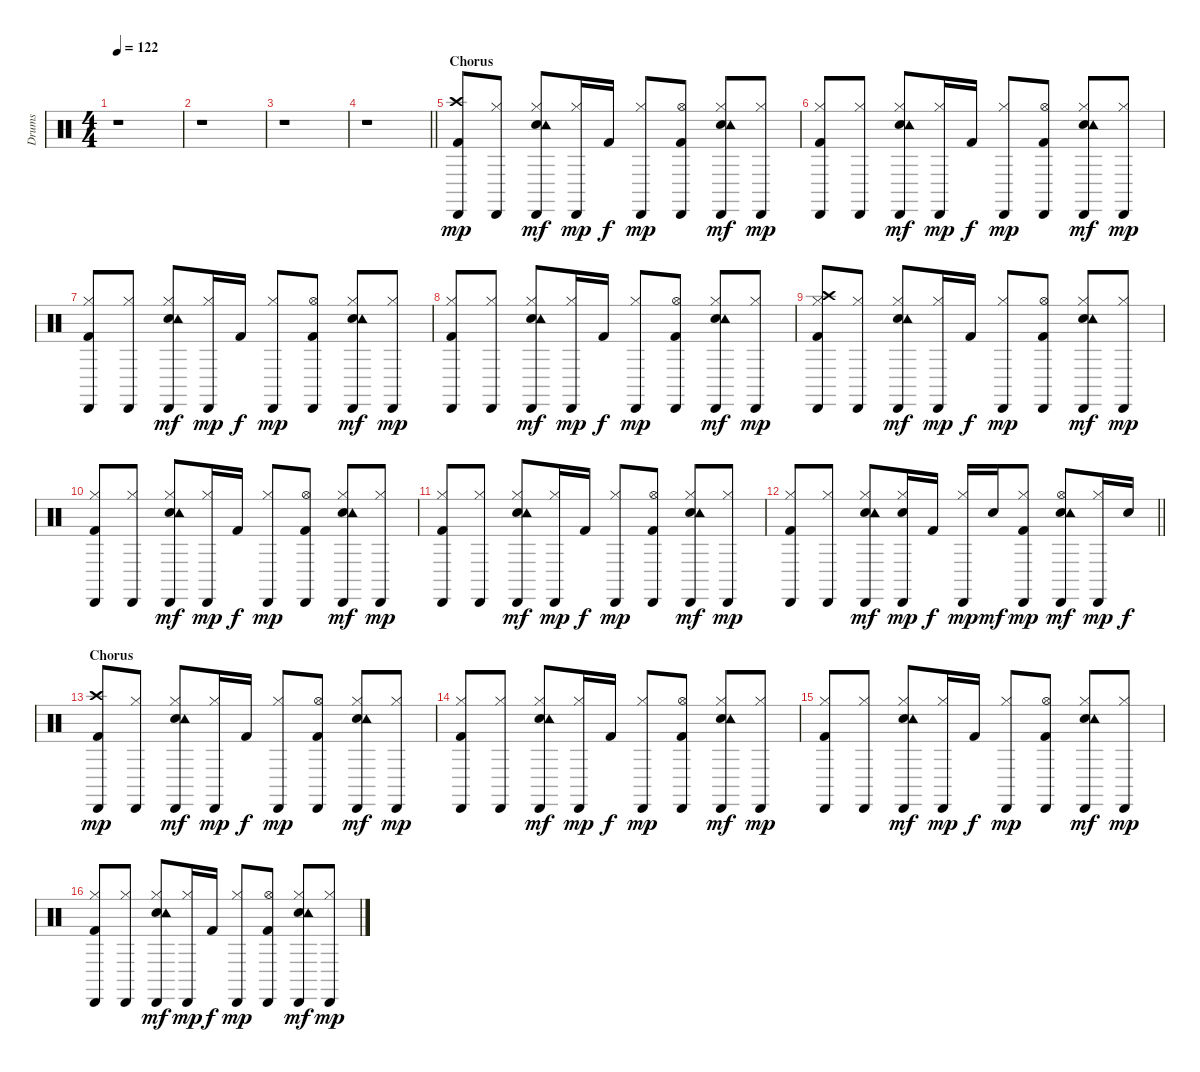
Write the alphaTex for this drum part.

\track ("Drums" "Drums") {instrument percussion}
\staff {score}
\articulation defaults
\ts (4 4)
\tempo 122
\clef neutral
\ks c
r.1{dy mf} |
r.1 |
r.1 |
\barLineRight lightlight
r.1 |
\section ("" "Chorus")
("Crash high (hit)" "Cabasa (hit)" "Kick (hit) 2").8{dy mp} ("Hi-Hat (closed)" "Cabasa (hit)").8 ("Hi-Hat (closed)" "Electric Snare (hit)" "Cabasa (hit)" "Tambourine (hit)").8{dy mf} ("Hi-Hat (closed)" "Cabasa (hit)").16{dy mp} "Kick (hit) 2".16{dy f} ("Hi-Hat (closed)" "Cabasa (hit)").8{dy mp} ("Hi-Hat (open)" "Cabasa (hit)" "Kick (hit) 2").8 ("Hi-Hat (closed)" "Electric Snare (hit)" "Cabasa (hit)" "Tambourine (hit)").8{dy mf} ("Hi-Hat (closed)" "Cabasa (hit)").8{dy mp} |
("Hi-Hat (closed)" "Cabasa (hit)" "Kick (hit) 2").8 ("Hi-Hat (closed)" "Cabasa (hit)").8 ("Hi-Hat (closed)" "Electric Snare (hit)" "Cabasa (hit)" "Tambourine (hit)").8{dy mf} ("Hi-Hat (closed)" "Cabasa (hit)").16{dy mp} "Kick (hit) 2".16{dy f} ("Hi-Hat (closed)" "Cabasa (hit)").8{dy mp} ("Hi-Hat (open)" "Cabasa (hit)" "Kick (hit) 2").8 ("Hi-Hat (closed)" "Electric Snare (hit)" "Cabasa (hit)" "Tambourine (hit)").8{dy mf} ("Hi-Hat (closed)" "Cabasa (hit)").8{dy mp} |
("Hi-Hat (closed)" "Cabasa (hit)" "Kick (hit) 2").8 ("Hi-Hat (closed)" "Cabasa (hit)").8 ("Hi-Hat (closed)" "Electric Snare (hit)" "Cabasa (hit)" "Tambourine (hit)").8{dy mf} ("Hi-Hat (closed)" "Cabasa (hit)").16{dy mp} "Kick (hit) 2".16{dy f} ("Hi-Hat (closed)" "Cabasa (hit)").8{dy mp} ("Hi-Hat (open)" "Cabasa (hit)" "Kick (hit) 2").8 ("Hi-Hat (closed)" "Electric Snare (hit)" "Cabasa (hit)" "Tambourine (hit)").8{dy mf} ("Hi-Hat (closed)" "Cabasa (hit)").8{dy mp} |
("Hi-Hat (closed)" "Cabasa (hit)" "Kick (hit) 2").8 ("Hi-Hat (closed)" "Cabasa (hit)").8 ("Hi-Hat (closed)" "Electric Snare (hit)" "Cabasa (hit)" "Tambourine (hit)").8{dy mf} ("Hi-Hat (closed)" "Cabasa (hit)").16{dy mp} "Kick (hit) 2".16{dy f} ("Hi-Hat (closed)" "Cabasa (hit)").8{dy mp} ("Hi-Hat (open)" "Cabasa (hit)" "Kick (hit) 2").8 ("Hi-Hat (closed)" "Electric Snare (hit)" "Cabasa (hit)" "Tambourine (hit)").8{dy mf} ("Hi-Hat (closed)" "Cabasa (hit)").8{dy mp} |
("Hi-Hat (closed)" "Crash high (hit)" "Cabasa (hit)" "Kick (hit) 2").8 ("Hi-Hat (closed)" "Cabasa (hit)").8 ("Hi-Hat (closed)" "Electric Snare (hit)" "Cabasa (hit)" "Tambourine (hit)").8{dy mf} ("Hi-Hat (closed)" "Cabasa (hit)").16{dy mp} "Kick (hit) 2".16{dy f} ("Hi-Hat (closed)" "Cabasa (hit)").8{dy mp} ("Hi-Hat (open)" "Cabasa (hit)" "Kick (hit) 2").8 ("Hi-Hat (closed)" "Electric Snare (hit)" "Cabasa (hit)" "Tambourine (hit)").8{dy mf} ("Hi-Hat (closed)" "Cabasa (hit)").8{dy mp} |
("Hi-Hat (closed)" "Cabasa (hit)" "Kick (hit) 2").8 ("Hi-Hat (closed)" "Cabasa (hit)").8 ("Hi-Hat (closed)" "Electric Snare (hit)" "Cabasa (hit)" "Tambourine (hit)").8{dy mf} ("Hi-Hat (closed)" "Cabasa (hit)").16{dy mp} "Kick (hit) 2".16{dy f} ("Hi-Hat (closed)" "Cabasa (hit)").8{dy mp} ("Hi-Hat (open)" "Cabasa (hit)" "Kick (hit) 2").8 ("Hi-Hat (closed)" "Electric Snare (hit)" "Cabasa (hit)" "Tambourine (hit)").8{dy mf} ("Hi-Hat (closed)" "Cabasa (hit)").8{dy mp} |
("Hi-Hat (closed)" "Cabasa (hit)" "Kick (hit) 2").8 ("Hi-Hat (closed)" "Cabasa (hit)").8 ("Hi-Hat (closed)" "Electric Snare (hit)" "Cabasa (hit)" "Tambourine (hit)").8{dy mf} ("Hi-Hat (closed)" "Cabasa (hit)").16{dy mp} "Kick (hit) 2".16{dy f} ("Hi-Hat (closed)" "Cabasa (hit)").8{dy mp} ("Hi-Hat (open)" "Cabasa (hit)" "Kick (hit) 2").8 ("Hi-Hat (closed)" "Electric Snare (hit)" "Cabasa (hit)" "Tambourine (hit)").8{dy mf} ("Hi-Hat (closed)" "Cabasa (hit)").8{dy mp} |
\barLineRight lightlight
("Hi-Hat (closed)" "Cabasa (hit)" "Kick (hit) 2").8 ("Hi-Hat (closed)" "Cabasa (hit)").8 ("Hi-Hat (closed)" "Electric Snare (hit)" "Cabasa (hit)" "Tambourine (hit)").8{dy mf} ("Hi-Hat (closed)" "Electric Snare (hit)" "Cabasa (hit)").16{dy mp} "Kick (hit) 2".16{dy f} ("Hi-Hat (closed)" "Cabasa (hit)").16{dy mp} "Electric Snare (hit)".16{dy mf} ("Hi-Hat (closed)" "Cabasa (hit)" "Kick (hit) 2").8{dy mp} ("Hi-Hat (open)" "Electric Snare (hit)" "Cabasa (hit)" "Tambourine (hit)").8{dy mf} ("Hi-Hat (closed)" "Cabasa (hit)").16{dy mp} "Electric Snare (hit)".16{dy f} |
\section ("" "Chorus")
("Crash high (hit)" "Cabasa (hit)" "Kick (hit) 2").8{dy mp} ("Hi-Hat (closed)" "Cabasa (hit)").8 ("Hi-Hat (closed)" "Electric Snare (hit)" "Cabasa (hit)" "Tambourine (hit)").8{dy mf} ("Hi-Hat (closed)" "Cabasa (hit)").16{dy mp} "Kick (hit) 2".16{dy f} ("Hi-Hat (closed)" "Cabasa (hit)").8{dy mp} ("Hi-Hat (open)" "Cabasa (hit)" "Kick (hit) 2").8 ("Hi-Hat (closed)" "Electric Snare (hit)" "Cabasa (hit)" "Tambourine (hit)").8{dy mf} ("Hi-Hat (closed)" "Cabasa (hit)").8{dy mp} |
("Hi-Hat (closed)" "Cabasa (hit)" "Kick (hit) 2").8 ("Hi-Hat (closed)" "Cabasa (hit)").8 ("Hi-Hat (closed)" "Electric Snare (hit)" "Cabasa (hit)" "Tambourine (hit)").8{dy mf} ("Hi-Hat (closed)" "Cabasa (hit)").16{dy mp} "Kick (hit) 2".16{dy f} ("Hi-Hat (closed)" "Cabasa (hit)").8{dy mp} ("Hi-Hat (open)" "Cabasa (hit)" "Kick (hit) 2").8 ("Hi-Hat (closed)" "Electric Snare (hit)" "Cabasa (hit)" "Tambourine (hit)").8{dy mf} ("Hi-Hat (closed)" "Cabasa (hit)").8{dy mp} |
("Hi-Hat (closed)" "Cabasa (hit)" "Kick (hit) 2").8 ("Hi-Hat (closed)" "Cabasa (hit)").8 ("Hi-Hat (closed)" "Electric Snare (hit)" "Cabasa (hit)" "Tambourine (hit)").8{dy mf} ("Hi-Hat (closed)" "Cabasa (hit)").16{dy mp} "Kick (hit) 2".16{dy f} ("Hi-Hat (closed)" "Cabasa (hit)").8{dy mp} ("Hi-Hat (open)" "Cabasa (hit)" "Kick (hit) 2").8 ("Hi-Hat (closed)" "Electric Snare (hit)" "Cabasa (hit)" "Tambourine (hit)").8{dy mf} ("Hi-Hat (closed)" "Cabasa (hit)").8{dy mp} |
("Hi-Hat (closed)" "Cabasa (hit)" "Kick (hit) 2").8 ("Hi-Hat (closed)" "Cabasa (hit)").8 ("Hi-Hat (closed)" "Electric Snare (hit)" "Cabasa (hit)" "Tambourine (hit)").8{dy mf} ("Hi-Hat (closed)" "Cabasa (hit)").16{dy mp} "Kick (hit) 2".16{dy f} ("Hi-Hat (closed)" "Cabasa (hit)").8{dy mp} ("Hi-Hat (open)" "Cabasa (hit)" "Kick (hit) 2").8 ("Hi-Hat (closed)" "Electric Snare (hit)" "Cabasa (hit)" "Tambourine (hit)").8{dy mf} ("Hi-Hat (closed)" "Cabasa (hit)").8{dy mp}
